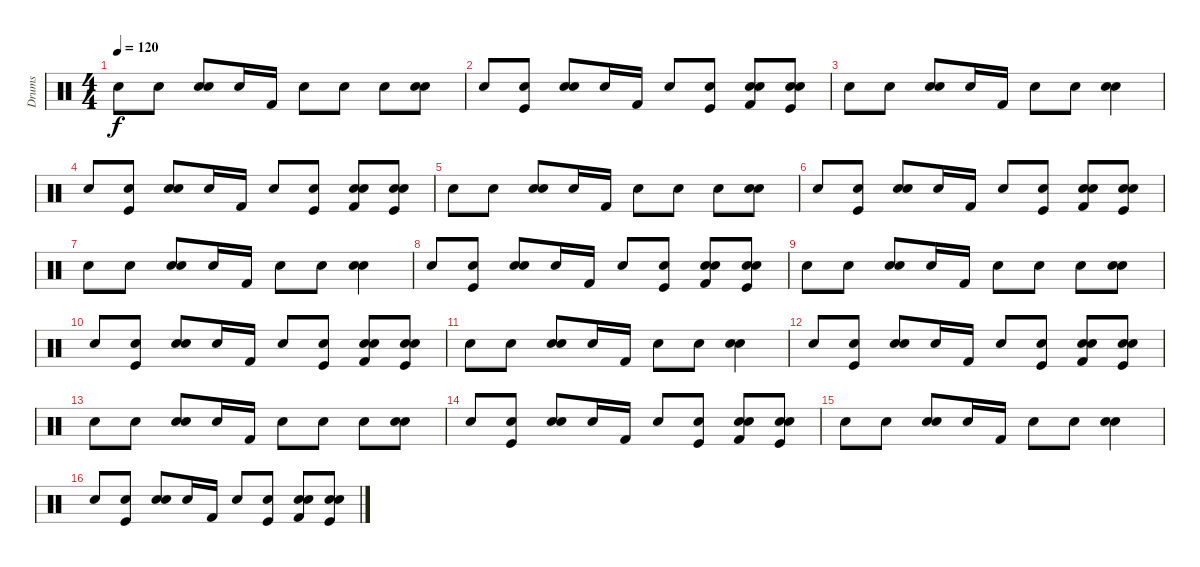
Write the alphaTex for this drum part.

\track ("Drums" "Drums") {instrument percussion}
\staff {score}
\articulation defaults
\ts (4 4)
\tempo 120
\clef neutral
\ks c "Snare (hit) 2".8{dy f volume 8} "Snare (hit) 2".8
("Electric Snare (hit)" "Snare (hit) 2").8 "Snare (hit) 2".16 "Kick (hit) 2".16 "Snare (hit) 2".8 "Snare (hit) 2".8 "Snare (hit) 2".8 ("Electric Snare (hit)" "Snare (hit) 2").8 |
"Snare (hit) 2".8 ("Snare (hit) 2" "Kick (hit)").8 ("Electric Snare (hit)" "Snare (hit) 2").8 "Snare (hit) 2".16 "Kick (hit) 2".16 "Snare (hit) 2".8 ("Snare (hit) 2" "Kick (hit)").8 ("Electric Snare (hit)" "Snare (hit) 2" "Kick (hit) 2").8 ("Electric Snare (hit)" "Snare (hit) 2" "Kick (hit)").8 |
"Snare (hit) 2".8 "Snare (hit) 2".8 ("Electric Snare (hit)" "Snare (hit) 2").8 "Snare (hit) 2".16 "Kick (hit) 2".16 "Snare (hit) 2".8 "Snare (hit) 2".8 ("Electric Snare (hit)" "Snare (hit) 2").4 |
"Snare (hit) 2".8 ("Snare (hit) 2" "Kick (hit)").8 ("Electric Snare (hit)" "Snare (hit) 2").8 "Snare (hit) 2".16 "Kick (hit) 2".16 "Snare (hit) 2".8 ("Snare (hit) 2" "Kick (hit)").8 ("Electric Snare (hit)" "Snare (hit) 2" "Kick (hit) 2").8 ("Electric Snare (hit)" "Snare (hit) 2" "Kick (hit)").8 |
"Snare (hit) 2".8{volume 6} "Snare (hit) 2".8 ("Electric Snare (hit)" "Snare (hit) 2").8 "Snare (hit) 2".16 "Kick (hit) 2".16 "Snare (hit) 2".8 "Snare (hit) 2".8 "Snare (hit) 2".8 ("Electric Snare (hit)" "Snare (hit) 2").8 |
"Snare (hit) 2".8 ("Snare (hit) 2" "Kick (hit)").8 ("Electric Snare (hit)" "Snare (hit) 2").8 "Snare (hit) 2".16 "Kick (hit) 2".16 "Snare (hit) 2".8 ("Snare (hit) 2" "Kick (hit)").8 ("Electric Snare (hit)" "Snare (hit) 2" "Kick (hit) 2").8 ("Electric Snare (hit)" "Snare (hit) 2" "Kick (hit)").8 |
"Snare (hit) 2".8 "Snare (hit) 2".8 ("Electric Snare (hit)" "Snare (hit) 2").8 "Snare (hit) 2".16 "Kick (hit) 2".16 "Snare (hit) 2".8 "Snare (hit) 2".8 ("Electric Snare (hit)" "Snare (hit) 2").4 |
"Snare (hit) 2".8 ("Snare (hit) 2" "Kick (hit)").8 ("Electric Snare (hit)" "Snare (hit) 2").8 "Snare (hit) 2".16 "Kick (hit) 2".16 "Snare (hit) 2".8 ("Snare (hit) 2" "Kick (hit)").8 ("Electric Snare (hit)" "Snare (hit) 2" "Kick (hit) 2").8 ("Electric Snare (hit)" "Snare (hit) 2" "Kick (hit)").8 |
"Snare (hit) 2".8{volume 4} "Snare (hit) 2".8 ("Electric Snare (hit)" "Snare (hit) 2").8 "Snare (hit) 2".16 "Kick (hit) 2".16 "Snare (hit) 2".8 "Snare (hit) 2".8 "Snare (hit) 2".8 ("Electric Snare (hit)" "Snare (hit) 2").8 |
"Snare (hit) 2".8 ("Snare (hit) 2" "Kick (hit)").8 ("Electric Snare (hit)" "Snare (hit) 2").8 "Snare (hit) 2".16 "Kick (hit) 2".16 "Snare (hit) 2".8 ("Snare (hit) 2" "Kick (hit)").8 ("Electric Snare (hit)" "Snare (hit) 2" "Kick (hit) 2").8 ("Electric Snare (hit)" "Snare (hit) 2" "Kick (hit)").8 |
"Snare (hit) 2".8 "Snare (hit) 2".8 ("Electric Snare (hit)" "Snare (hit) 2").8 "Snare (hit) 2".16 "Kick (hit) 2".16 "Snare (hit) 2".8 "Snare (hit) 2".8 ("Electric Snare (hit)" "Snare (hit) 2").4 |
"Snare (hit) 2".8 ("Snare (hit) 2" "Kick (hit)").8 ("Electric Snare (hit)" "Snare (hit) 2").8 "Snare (hit) 2".16 "Kick (hit) 2".16 "Snare (hit) 2".8 ("Snare (hit) 2" "Kick (hit)").8 ("Electric Snare (hit)" "Snare (hit) 2" "Kick (hit) 2").8 ("Electric Snare (hit)" "Snare (hit) 2" "Kick (hit)").8 |
"Snare (hit) 2".8{volume 2} "Snare (hit) 2".8 ("Electric Snare (hit)" "Snare (hit) 2").8 "Snare (hit) 2".16 "Kick (hit) 2".16 "Snare (hit) 2".8 "Snare (hit) 2".8 "Snare (hit) 2".8 ("Electric Snare (hit)" "Snare (hit) 2").8 |
"Snare (hit) 2".8 ("Snare (hit) 2" "Kick (hit)").8 ("Electric Snare (hit)" "Snare (hit) 2").8 "Snare (hit) 2".16 "Kick (hit) 2".16 "Snare (hit) 2".8 ("Snare (hit) 2" "Kick (hit)").8 ("Electric Snare (hit)" "Snare (hit) 2" "Kick (hit) 2").8 ("Electric Snare (hit)" "Snare (hit) 2" "Kick (hit)").8 |
"Snare (hit) 2".8 "Snare (hit) 2".8 ("Electric Snare (hit)" "Snare (hit) 2").8 "Snare (hit) 2".16 "Kick (hit) 2".16 "Snare (hit) 2".8 "Snare (hit) 2".8 ("Electric Snare (hit)" "Snare (hit) 2").4 |
"Snare (hit) 2".8 ("Snare (hit) 2" "Kick (hit)").8 ("Electric Snare (hit)" "Snare (hit) 2").8 "Snare (hit) 2".16 "Kick (hit) 2".16 "Snare (hit) 2".8 ("Snare (hit) 2" "Kick (hit)").8 ("Electric Snare (hit)" "Snare (hit) 2" "Kick (hit) 2").8 ("Electric Snare (hit)" "Snare (hit) 2" "Kick (hit)").8
